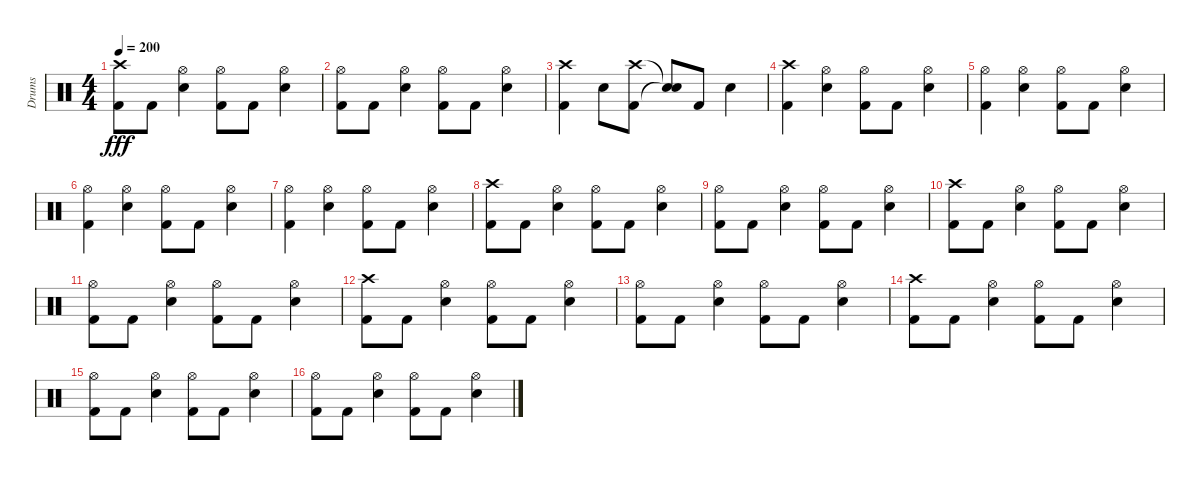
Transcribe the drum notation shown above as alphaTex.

\track ("Drums" "Drums") {instrument percussion}
\staff {score}
\articulation defaults
\ts (4 4)
\tempo 200
\clef neutral
\ks c
("Crash high (hit)" "Kick (hit) 2").8{dy fff} "Kick (hit) 2".8 ("Hi-Hat (open)" "Electric Snare (hit)").4 ("Hi-Hat (open)" "Kick (hit) 2").8 "Kick (hit) 2".8 ("Hi-Hat (open)" "Electric Snare (hit)").4 |
("Hi-Hat (open)" "Kick (hit) 2").8 "Kick (hit) 2".8 ("Hi-Hat (open)" "Electric Snare (hit)").4 ("Hi-Hat (open)" "Kick (hit) 2").8 "Kick (hit) 2".8 ("Hi-Hat (open)" "Electric Snare (hit)").4 |
("Crash high (hit)" "Kick (hit) 2").4 "Electric Snare (hit)".8 ("Crash high (hit)" "Kick (hit) 2").8 ("Snare (hit)"{t} "Snare (hit)"{t}).8 "Kick (hit) 2".8 "Electric Snare (hit)".4 |
("Crash high (hit)" "Kick (hit) 2").4 ("Hi-Hat (open)" "Electric Snare (hit)").4 ("Hi-Hat (open)" "Kick (hit) 2").8 "Kick (hit) 2".8 ("Hi-Hat (open)" "Electric Snare (hit)").4 |
("Hi-Hat (open)" "Kick (hit) 2").4 ("Hi-Hat (open)" "Electric Snare (hit)").4 ("Hi-Hat (open)" "Kick (hit) 2").8 "Kick (hit) 2".8 ("Hi-Hat (open)" "Electric Snare (hit)").4 |
("Hi-Hat (open)" "Kick (hit) 2").4 ("Hi-Hat (open)" "Electric Snare (hit)").4 ("Hi-Hat (open)" "Kick (hit) 2").8 "Kick (hit) 2".8 ("Hi-Hat (open)" "Electric Snare (hit)").4 |
("Hi-Hat (open)" "Kick (hit) 2").4 ("Hi-Hat (open)" "Electric Snare (hit)").4 ("Hi-Hat (open)" "Kick (hit) 2").8 "Kick (hit) 2".8 ("Hi-Hat (open)" "Electric Snare (hit)").4 |
("Crash high (hit)" "Kick (hit) 2").8 "Kick (hit) 2".8 ("Hi-Hat (open)" "Electric Snare (hit)").4 ("Hi-Hat (open)" "Kick (hit) 2").8 "Kick (hit) 2".8 ("Hi-Hat (open)" "Electric Snare (hit)").4 |
("Hi-Hat (open)" "Kick (hit) 2").8 "Kick (hit) 2".8 ("Hi-Hat (open)" "Electric Snare (hit)").4 ("Hi-Hat (open)" "Kick (hit) 2").8 "Kick (hit) 2".8 ("Hi-Hat (open)" "Electric Snare (hit)").4 |
("Crash high (hit)" "Kick (hit) 2").8 "Kick (hit) 2".8 ("Hi-Hat (open)" "Electric Snare (hit)").4 ("Hi-Hat (open)" "Kick (hit) 2").8 "Kick (hit) 2".8 ("Hi-Hat (open)" "Electric Snare (hit)").4 |
("Hi-Hat (open)" "Kick (hit) 2").8 "Kick (hit) 2".8 ("Hi-Hat (open)" "Electric Snare (hit)").4 ("Hi-Hat (open)" "Kick (hit) 2").8 "Kick (hit) 2".8 ("Hi-Hat (open)" "Electric Snare (hit)").4 |
("Crash high (hit)" "Kick (hit) 2").8 "Kick (hit) 2".8 ("Hi-Hat (open)" "Electric Snare (hit)").4 ("Hi-Hat (open)" "Kick (hit) 2").8 "Kick (hit) 2".8 ("Hi-Hat (open)" "Electric Snare (hit)").4 |
("Hi-Hat (open)" "Kick (hit) 2").8 "Kick (hit) 2".8 ("Hi-Hat (open)" "Electric Snare (hit)").4 ("Hi-Hat (open)" "Kick (hit) 2").8 "Kick (hit) 2".8 ("Hi-Hat (open)" "Electric Snare (hit)").4 |
("Crash high (hit)" "Kick (hit) 2").8 "Kick (hit) 2".8 ("Hi-Hat (open)" "Electric Snare (hit)").4 ("Hi-Hat (open)" "Kick (hit) 2").8 "Kick (hit) 2".8 ("Hi-Hat (open)" "Electric Snare (hit)").4 |
("Hi-Hat (open)" "Kick (hit) 2").8 "Kick (hit) 2".8 ("Hi-Hat (open)" "Electric Snare (hit)").4 ("Hi-Hat (open)" "Kick (hit) 2").8 "Kick (hit) 2".8 ("Hi-Hat (open)" "Electric Snare (hit)").4 |
("Hi-Hat (open)" "Kick (hit) 2").8 "Kick (hit) 2".8 ("Hi-Hat (open)" "Electric Snare (hit)").4 ("Hi-Hat (open)" "Kick (hit) 2").8 "Kick (hit) 2".8 ("Hi-Hat (open)" "Electric Snare (hit)").4
